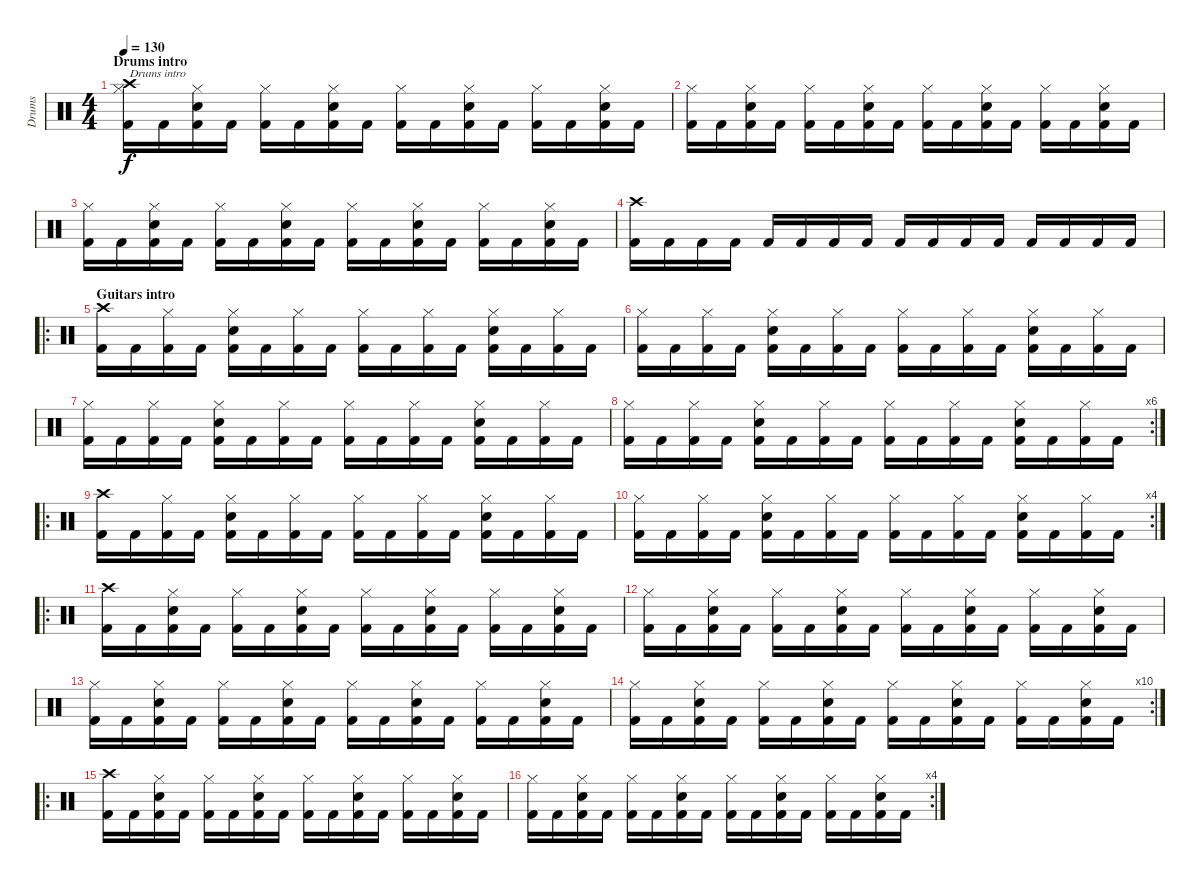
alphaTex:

\track ("Drums" "Drums") {instrument percussion}
\staff {score}
\articulation defaults
\ts (4 4)
\section ("" "Drums intro")
\tempo 130
\clef neutral
\ks c
("Crash high (hit)" "Kick (hit) 2" "Hi-Hat (closed)").16{txt "Drums intro" dy f} "Kick (hit) 2".16 ("Kick (hit) 2" "Hi-Hat (closed)" "Snare (hit) 2").16 "Kick (hit) 2".16 ("Kick (hit) 2" "Hi-Hat (closed)").16 "Kick (hit) 2".16 ("Kick (hit) 2" "Hi-Hat (closed)" "Snare (hit) 2").16 "Kick (hit) 2".16 ("Kick (hit) 2" "Hi-Hat (closed)").16 "Kick (hit) 2".16 ("Kick (hit) 2" "Hi-Hat (closed)" "Snare (hit) 2").16 "Kick (hit) 2".16 ("Kick (hit) 2" "Hi-Hat (closed)").16 "Kick (hit) 2".16 ("Kick (hit) 2" "Hi-Hat (closed)" "Snare (hit) 2").16 "Kick (hit) 2".16 |
("Kick (hit) 2" "Hi-Hat (closed)").16 "Kick (hit) 2".16 ("Kick (hit) 2" "Hi-Hat (closed)" "Snare (hit) 2").16 "Kick (hit) 2".16 ("Kick (hit) 2" "Hi-Hat (closed)").16 "Kick (hit) 2".16 ("Kick (hit) 2" "Hi-Hat (closed)" "Snare (hit) 2").16 "Kick (hit) 2".16 ("Kick (hit) 2" "Hi-Hat (closed)").16 "Kick (hit) 2".16 ("Kick (hit) 2" "Hi-Hat (closed)" "Snare (hit) 2").16 "Kick (hit) 2".16 ("Kick (hit) 2" "Hi-Hat (closed)").16 "Kick (hit) 2".16 ("Kick (hit) 2" "Hi-Hat (closed)" "Snare (hit) 2").16 "Kick (hit) 2".16 |
("Kick (hit) 2" "Hi-Hat (closed)").16 "Kick (hit) 2".16 ("Kick (hit) 2" "Hi-Hat (closed)" "Snare (hit) 2").16 "Kick (hit) 2".16 ("Kick (hit) 2" "Hi-Hat (closed)").16 "Kick (hit) 2".16 ("Kick (hit) 2" "Hi-Hat (closed)" "Snare (hit) 2").16 "Kick (hit) 2".16 ("Kick (hit) 2" "Hi-Hat (closed)").16 "Kick (hit) 2".16 ("Kick (hit) 2" "Hi-Hat (closed)" "Snare (hit) 2").16 "Kick (hit) 2".16 ("Kick (hit) 2" "Hi-Hat (closed)").16 "Kick (hit) 2".16 ("Kick (hit) 2" "Hi-Hat (closed)" "Snare (hit) 2").16 "Kick (hit) 2".16 |
("Crash high (hit)" "Kick (hit) 2").16 "Kick (hit) 2".16 "Kick (hit) 2".16 "Kick (hit) 2".16 "Kick (hit) 2".16 "Kick (hit) 2".16 "Kick (hit) 2".16 "Kick (hit) 2".16 "Kick (hit) 2".16 "Kick (hit) 2".16 "Kick (hit) 2".16 "Kick (hit) 2".16 "Kick (hit) 2".16 "Kick (hit) 2".16 "Kick (hit) 2".16 "Kick (hit) 2".16 |
\ro
\section ("" "Guitars intro")
("Kick (hit) 2" "Crash high (hit)").16 "Kick (hit) 2".16 ("Kick (hit) 2" "Hi-Hat (closed)").16 "Kick (hit) 2".16 ("Kick (hit) 2" "Hi-Hat (closed)" "Snare (hit) 2").16 "Kick (hit) 2".16 ("Kick (hit) 2" "Hi-Hat (closed)").16 "Kick (hit) 2".16 ("Kick (hit) 2" "Hi-Hat (closed)").16 "Kick (hit) 2".16 ("Kick (hit) 2" "Hi-Hat (closed)").16 "Kick (hit) 2".16 ("Kick (hit) 2" "Hi-Hat (closed)" "Snare (hit) 2").16 "Kick (hit) 2".16 ("Kick (hit) 2" "Hi-Hat (closed)").16 "Kick (hit) 2".16 |
("Kick (hit) 2" "Hi-Hat (closed)").16 "Kick (hit) 2".16 ("Kick (hit) 2" "Hi-Hat (closed)").16 "Kick (hit) 2".16 ("Kick (hit) 2" "Hi-Hat (closed)" "Snare (hit) 2").16 "Kick (hit) 2".16 ("Kick (hit) 2" "Hi-Hat (closed)").16 "Kick (hit) 2".16 ("Kick (hit) 2" "Hi-Hat (closed)").16 "Kick (hit) 2".16 ("Kick (hit) 2" "Hi-Hat (closed)").16 "Kick (hit) 2".16 ("Kick (hit) 2" "Hi-Hat (closed)" "Snare (hit) 2").16 "Kick (hit) 2".16 ("Kick (hit) 2" "Hi-Hat (closed)").16 "Kick (hit) 2".16 |
("Kick (hit) 2" "Hi-Hat (closed)").16 "Kick (hit) 2".16 ("Kick (hit) 2" "Hi-Hat (closed)").16 "Kick (hit) 2".16 ("Kick (hit) 2" "Hi-Hat (closed)" "Snare (hit) 2").16 "Kick (hit) 2".16 ("Kick (hit) 2" "Hi-Hat (closed)").16 "Kick (hit) 2".16 ("Kick (hit) 2" "Hi-Hat (closed)").16 "Kick (hit) 2".16 ("Kick (hit) 2" "Hi-Hat (closed)").16 "Kick (hit) 2".16 ("Kick (hit) 2" "Hi-Hat (closed)" "Snare (hit) 2").16 "Kick (hit) 2".16 ("Kick (hit) 2" "Hi-Hat (closed)").16 "Kick (hit) 2".16 |
\rc 6
("Kick (hit) 2" "Hi-Hat (closed)").16 "Kick (hit) 2".16 ("Kick (hit) 2" "Hi-Hat (closed)").16 "Kick (hit) 2".16 ("Kick (hit) 2" "Hi-Hat (closed)" "Snare (hit) 2").16 "Kick (hit) 2".16 ("Kick (hit) 2" "Hi-Hat (closed)").16 "Kick (hit) 2".16 ("Kick (hit) 2" "Hi-Hat (closed)").16 "Kick (hit) 2".16 ("Kick (hit) 2" "Hi-Hat (closed)").16 "Kick (hit) 2".16 ("Kick (hit) 2" "Hi-Hat (closed)" "Snare (hit) 2").16 "Kick (hit) 2".16 ("Kick (hit) 2" "Hi-Hat (closed)").16 "Kick (hit) 2".16 |
\ro
("Kick (hit) 2" "Crash high (hit)").16 "Kick (hit) 2".16 ("Kick (hit) 2" "Hi-Hat (closed)").16 "Kick (hit) 2".16 ("Kick (hit) 2" "Hi-Hat (closed)" "Snare (hit) 2").16 "Kick (hit) 2".16 ("Kick (hit) 2" "Hi-Hat (closed)").16 "Kick (hit) 2".16 ("Kick (hit) 2" "Hi-Hat (closed)").16 "Kick (hit) 2".16 ("Kick (hit) 2" "Hi-Hat (closed)").16 "Kick (hit) 2".16 ("Kick (hit) 2" "Hi-Hat (closed)" "Snare (hit) 2").16 "Kick (hit) 2".16 ("Kick (hit) 2" "Hi-Hat (closed)").16 "Kick (hit) 2".16 |
\rc 4
("Kick (hit) 2" "Hi-Hat (closed)").16 "Kick (hit) 2".16 ("Kick (hit) 2" "Hi-Hat (closed)").16 "Kick (hit) 2".16 ("Kick (hit) 2" "Hi-Hat (closed)" "Snare (hit) 2").16 "Kick (hit) 2".16 ("Kick (hit) 2" "Hi-Hat (closed)").16 "Kick (hit) 2".16 ("Kick (hit) 2" "Hi-Hat (closed)").16 "Kick (hit) 2".16 ("Kick (hit) 2" "Hi-Hat (closed)").16 "Kick (hit) 2".16 ("Kick (hit) 2" "Hi-Hat (closed)" "Snare (hit) 2").16 "Kick (hit) 2".16 ("Kick (hit) 2" "Hi-Hat (closed)").16 "Kick (hit) 2".16 |
\ro
("Kick (hit) 2" "Crash high (hit)").16 "Kick (hit) 2".16 ("Kick (hit) 2" "Hi-Hat (closed)" "Snare (hit) 2").16 "Kick (hit) 2".16 ("Kick (hit) 2" "Hi-Hat (closed)").16 "Kick (hit) 2".16 ("Kick (hit) 2" "Hi-Hat (closed)" "Snare (hit) 2").16 "Kick (hit) 2".16 ("Kick (hit) 2" "Hi-Hat (closed)").16 "Kick (hit) 2".16 ("Kick (hit) 2" "Hi-Hat (closed)" "Snare (hit) 2").16 "Kick (hit) 2".16 ("Kick (hit) 2" "Hi-Hat (closed)").16 "Kick (hit) 2".16 ("Kick (hit) 2" "Hi-Hat (closed)" "Snare (hit) 2").16 "Kick (hit) 2".16 |
("Kick (hit) 2" "Hi-Hat (closed)").16 "Kick (hit) 2".16 ("Kick (hit) 2" "Hi-Hat (closed)" "Snare (hit) 2").16 "Kick (hit) 2".16 ("Kick (hit) 2" "Hi-Hat (closed)").16 "Kick (hit) 2".16 ("Kick (hit) 2" "Hi-Hat (closed)" "Snare (hit) 2").16 "Kick (hit) 2".16 ("Kick (hit) 2" "Hi-Hat (closed)").16 "Kick (hit) 2".16 ("Kick (hit) 2" "Hi-Hat (closed)" "Snare (hit) 2").16 "Kick (hit) 2".16 ("Kick (hit) 2" "Hi-Hat (closed)").16 "Kick (hit) 2".16 ("Kick (hit) 2" "Hi-Hat (closed)" "Snare (hit) 2").16 "Kick (hit) 2".16 |
("Kick (hit) 2" "Hi-Hat (closed)").16 "Kick (hit) 2".16 ("Kick (hit) 2" "Hi-Hat (closed)" "Snare (hit) 2").16 "Kick (hit) 2".16 ("Kick (hit) 2" "Hi-Hat (closed)").16 "Kick (hit) 2".16 ("Kick (hit) 2" "Hi-Hat (closed)" "Snare (hit) 2").16 "Kick (hit) 2".16 ("Kick (hit) 2" "Hi-Hat (closed)").16 "Kick (hit) 2".16 ("Kick (hit) 2" "Hi-Hat (closed)" "Snare (hit) 2").16 "Kick (hit) 2".16 ("Kick (hit) 2" "Hi-Hat (closed)").16 "Kick (hit) 2".16 ("Kick (hit) 2" "Hi-Hat (closed)" "Snare (hit) 2").16 "Kick (hit) 2".16 |
\rc 10
("Kick (hit) 2" "Hi-Hat (closed)").16 "Kick (hit) 2".16 ("Kick (hit) 2" "Hi-Hat (closed)" "Snare (hit) 2").16 "Kick (hit) 2".16 ("Kick (hit) 2" "Hi-Hat (closed)").16 "Kick (hit) 2".16 ("Kick (hit) 2" "Hi-Hat (closed)" "Snare (hit) 2").16 "Kick (hit) 2".16 ("Kick (hit) 2" "Hi-Hat (closed)").16 "Kick (hit) 2".16 ("Kick (hit) 2" "Hi-Hat (closed)" "Snare (hit) 2").16 "Kick (hit) 2".16 ("Kick (hit) 2" "Hi-Hat (closed)").16 "Kick (hit) 2".16 ("Kick (hit) 2" "Hi-Hat (closed)" "Snare (hit) 2").16 "Kick (hit) 2".16 |
\ro
("Kick (hit) 2" "Crash high (hit)").16 "Kick (hit) 2".16 ("Kick (hit) 2" "Hi-Hat (closed)" "Snare (hit) 2").16 "Kick (hit) 2".16 ("Kick (hit) 2" "Hi-Hat (closed)").16 "Kick (hit) 2".16 ("Kick (hit) 2" "Hi-Hat (closed)" "Snare (hit) 2").16 "Kick (hit) 2".16 ("Kick (hit) 2" "Hi-Hat (closed)").16 "Kick (hit) 2".16 ("Kick (hit) 2" "Hi-Hat (closed)" "Snare (hit) 2").16 "Kick (hit) 2".16 ("Kick (hit) 2" "Hi-Hat (closed)").16 "Kick (hit) 2".16 ("Kick (hit) 2" "Hi-Hat (closed)" "Snare (hit) 2").16 "Kick (hit) 2".16 |
\rc 4
("Kick (hit) 2" "Hi-Hat (closed)").16 "Kick (hit) 2".16 ("Kick (hit) 2" "Hi-Hat (closed)" "Snare (hit) 2").16 "Kick (hit) 2".16 ("Kick (hit) 2" "Hi-Hat (closed)").16 "Kick (hit) 2".16 ("Kick (hit) 2" "Hi-Hat (closed)" "Snare (hit) 2").16 "Kick (hit) 2".16 ("Kick (hit) 2" "Hi-Hat (closed)").16 "Kick (hit) 2".16 ("Kick (hit) 2" "Hi-Hat (closed)" "Snare (hit) 2").16 "Kick (hit) 2".16 ("Kick (hit) 2" "Hi-Hat (closed)").16 "Kick (hit) 2".16 ("Kick (hit) 2" "Hi-Hat (closed)" "Snare (hit) 2").16 "Kick (hit) 2".16
